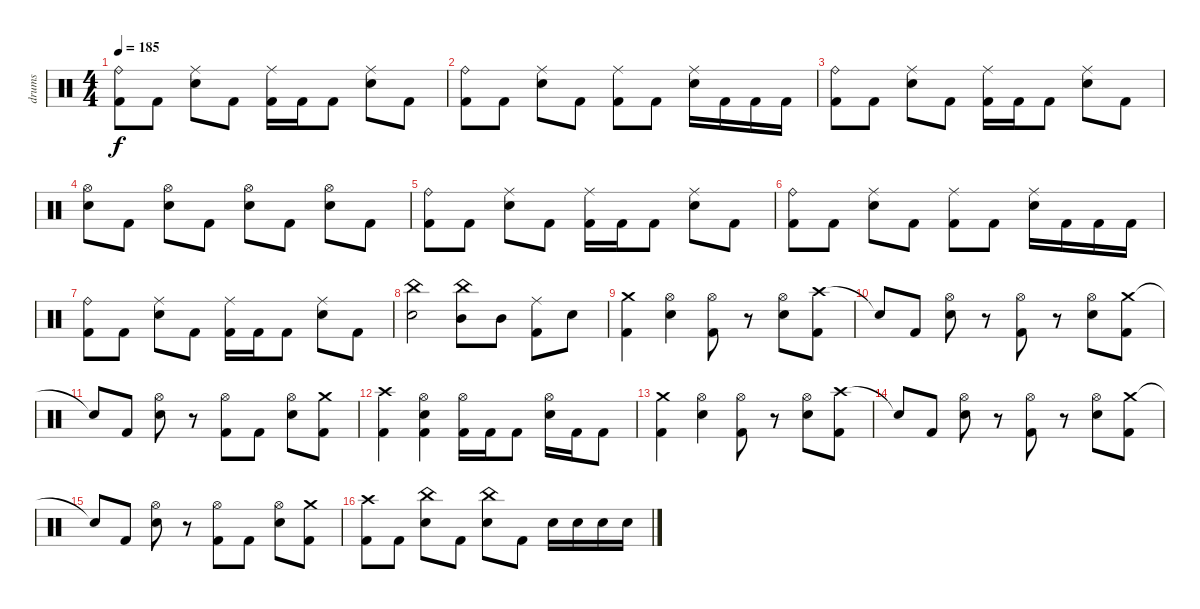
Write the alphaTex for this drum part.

\track ("drums" "drums") {instrument percussion}
\staff {score}
\articulation defaults
\ts (4 4)
\tempo 185
\clef neutral
\ks c
("Ride (bell)" "Kick (hit) 2").8{dy f} "Kick (hit) 2".8 ("Ride (middle)" "Snare (hit) 2").8 "Kick (hit) 2".8 ("Ride (middle)" "Kick (hit) 2").16 "Kick (hit) 2".16 "Kick (hit) 2".8 ("Ride (middle)" "Snare (hit) 2").8 "Kick (hit) 2".8 |
("Ride (bell)" "Kick (hit) 2").8 "Kick (hit) 2".8 ("Ride (middle)" "Snare (hit) 2").8 "Kick (hit) 2".8 ("Ride (middle)" "Kick (hit) 2").8 "Kick (hit) 2".8 ("Ride (middle)" "Snare (hit) 2").16 "Kick (hit) 2".16 "Kick (hit) 2".16 "Kick (hit) 2".16 |
("Ride (bell)" "Kick (hit) 2").8 "Kick (hit) 2".8 ("Ride (middle)" "Snare (hit) 2").8 "Kick (hit) 2".8 ("Ride (middle)" "Kick (hit) 2").16 "Kick (hit) 2".16 "Kick (hit) 2".8 ("Ride (middle)" "Snare (hit) 2").8 "Kick (hit) 2".8 |
("Hi-Hat (open)" "Snare (hit) 2").8 "Kick (hit) 2".8 ("Hi-Hat (open)" "Snare (hit) 2").8 "Kick (hit) 2".8 ("Hi-Hat (open)" "Snare (hit) 2").8 "Kick (hit) 2".8 ("Hi-Hat (open)" "Snare (hit) 2").8 "Kick (hit) 2".8 |
("Ride (bell)" "Kick (hit) 2").8 "Kick (hit) 2".8 ("Ride (middle)" "Snare (hit) 2").8 "Kick (hit) 2".8 ("Ride (middle)" "Kick (hit) 2").16 "Kick (hit) 2".16 "Kick (hit) 2".8 ("Ride (middle)" "Snare (hit) 2").8 "Kick (hit) 2".8 |
("Ride (bell)" "Kick (hit) 2").8 "Kick (hit) 2".8 ("Ride (middle)" "Snare (hit) 2").8 "Kick (hit) 2".8 ("Ride (middle)" "Kick (hit) 2").8 "Kick (hit) 2".8 ("Ride (middle)" "Snare (hit) 2").16 "Kick (hit) 2".16 "Kick (hit) 2".16 "Kick (hit) 2".16 |
("Ride (bell)" "Kick (hit) 2").8 "Kick (hit) 2".8 ("Ride (middle)" "Snare (hit) 2").8 "Kick (hit) 2".8 ("Ride (middle)" "Kick (hit) 2").16 "Kick (hit) 2".16 "Kick (hit) 2".8 ("Ride (middle)" "Snare (hit) 2").8 "Kick (hit) 2".8 |
("China (hit)" "Snare (hit) 2").2 ("China (hit)" "Mid Tom (hit)").8 "Mid Tom (hit)".8 ("Ride (middle)" "Kick (hit) 2").8 "Snare (hit) 2".8 |
("Crash medium (hit)" "Kick (hit) 2").4 ("Hi-Hat (open)" "Snare (hit) 2").4 ("Hi-Hat (open)" "Kick (hit) 2").8 r.8 ("Hi-Hat (open)" "Snare (hit) 2").8 ("Crash high (hit)" "Kick (hit) 2").8 |
"Snare (hit)"{t}.8 "Kick (hit) 2".8 ("Hi-Hat (open)" "Snare (hit) 2").8 r.8 ("Hi-Hat (open)" "Kick (hit) 2").8 r.8 ("Hi-Hat (open)" "Snare (hit) 2").8 ("Crash medium (hit)" "Kick (hit) 2").8 |
"Snare (hit)"{t}.8 "Kick (hit) 2".8 ("Hi-Hat (open)" "Snare (hit) 2").8 r.8 ("Hi-Hat (open)" "Kick (hit) 2").8 "Kick (hit) 2".8 ("Hi-Hat (open)" "Snare (hit) 2").8 ("Crash medium (hit)" "Kick (hit) 2").8 |
("Crash high (hit)" "Kick (hit) 2").4 ("Hi-Hat (open)" "Snare (hit) 2" "Kick (hit) 2").4 ("Hi-Hat (open)" "Kick (hit) 2").16 "Kick (hit) 2".16 "Kick (hit) 2".8 ("Hi-Hat (open)" "Snare (hit) 2").16 "Kick (hit) 2".16 "Kick (hit) 2".8 |
("Crash medium (hit)" "Kick (hit) 2").4 ("Hi-Hat (open)" "Snare (hit) 2").4 ("Hi-Hat (open)" "Kick (hit) 2").8 r.8 ("Hi-Hat (open)" "Snare (hit) 2").8 ("Crash high (hit)" "Kick (hit) 2").8 |
"Snare (hit)"{t}.8 "Kick (hit) 2".8 ("Hi-Hat (open)" "Snare (hit) 2").8 r.8 ("Hi-Hat (open)" "Kick (hit) 2").8 r.8 ("Hi-Hat (open)" "Snare (hit) 2").8 ("Crash medium (hit)" "Kick (hit) 2").8 |
"Snare (hit)"{t}.8 "Kick (hit) 2".8 ("Hi-Hat (open)" "Snare (hit) 2").8 r.8 ("Hi-Hat (open)" "Kick (hit) 2").8 "Kick (hit) 2".8 ("Hi-Hat (open)" "Snare (hit) 2").8 ("Crash medium (hit)" "Kick (hit) 2").8 |
("Crash high (hit)" "Kick (hit) 2").8 "Kick (hit) 2".8 ("China (hit)" "Snare (hit) 2").8 "Kick (hit) 2".8 ("China (hit)" "Snare (hit) 2").8 "Kick (hit) 2".8 "Snare (hit) 2".16 "Snare (hit) 2".16 "Snare (hit) 2".16 "Snare (hit) 2".16
